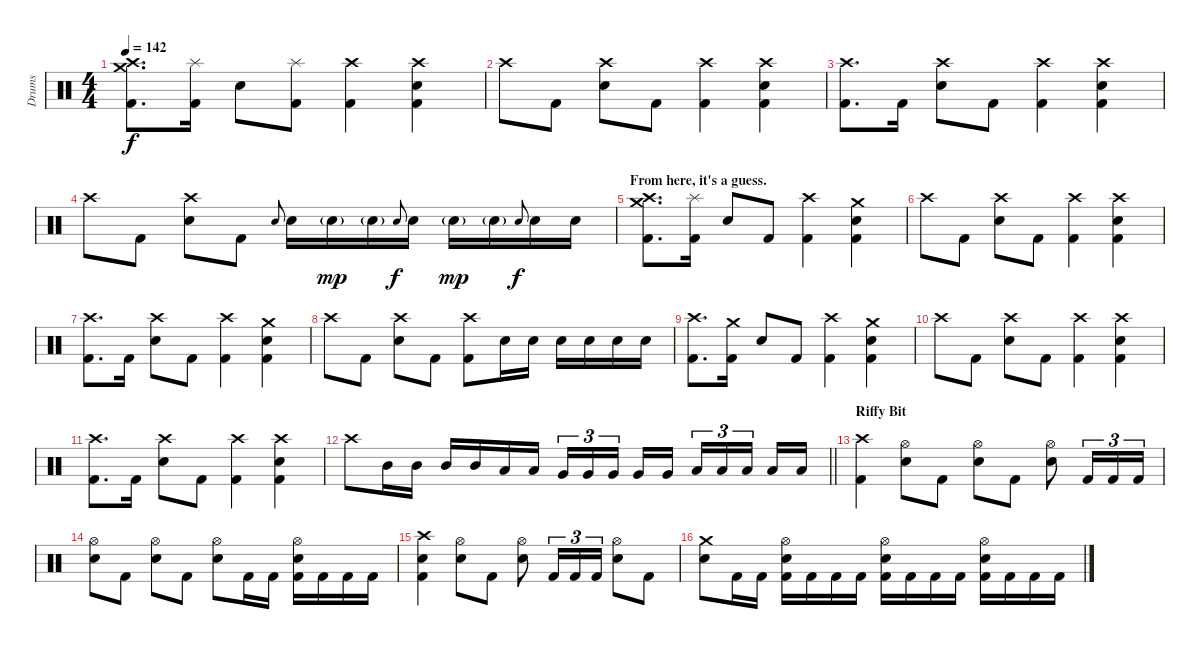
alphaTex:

\track ("Drums" "Drums") {instrument percussion}
\staff {score}
\articulation defaults
\ts (4 4)
\tempo 142
\clef neutral
\ks c
("Crash high (hit)" "Crash medium (hit)" "Kick (hit) 2").8{d dy f} ("Splash (hit)" "Kick (hit) 2").16 "Electric Snare (hit)".8 ("Splash (hit)" "Kick (hit) 2").8 ("Crash high (hit)" "Kick (hit) 2").4 ("Crash high (hit)" "Electric Snare (hit)" "Kick (hit) 2").4 |
"Crash high (hit)".8 "Kick (hit) 2".8 ("Crash high (hit)" "Electric Snare (hit)").8 "Kick (hit) 2".8 ("Crash high (hit)" "Kick (hit) 2").4 ("Crash high (hit)" "Electric Snare (hit)" "Kick (hit) 2").4 |
("Crash high (hit)" "Kick (hit) 2").8{d} "Kick (hit) 2".16 ("Crash high (hit)" "Electric Snare (hit)").8 "Kick (hit) 2".8 ("Crash high (hit)" "Kick (hit) 2").4 ("Crash high (hit)" "Electric Snare (hit)" "Kick (hit) 2").4 |
"Crash high (hit)".8 "Kick (hit) 2".8 ("Crash high (hit)" "Electric Snare (hit)").8 "Kick (hit) 2".8 "Electric Snare (hit)".8{gr onbeat} "Electric Snare (hit)".16 "Electric Snare (hit)"{g}.16{dy mp} "Electric Snare (hit)"{g}.16 "Electric Snare (hit)".8{gr onbeat dy f} "Electric Snare (hit)".16 "Electric Snare (hit)"{g}.16{dy mp} "Electric Snare (hit)"{g}.16 "Electric Snare (hit)".8{gr onbeat dy f} "Electric Snare (hit)".16 "Electric Snare (hit)".16 |
\section ("" "From here, it's a guess.")
("Crash high (hit)" "Crash medium (hit)" "Kick (hit) 2").8{d} ("Splash (hit)" "Kick (hit) 2").16 "Electric Snare (hit)".8 "Kick (hit) 2".8 ("Crash high (hit)" "Kick (hit) 2").4 ("Crash medium (hit)" "Electric Snare (hit)" "Kick (hit) 2").4 |
"Crash high (hit)".8 "Kick (hit) 2".8 ("Crash high (hit)" "Electric Snare (hit)").8 "Kick (hit) 2".8 ("Crash high (hit)" "Kick (hit) 2").4 ("Crash high (hit)" "Electric Snare (hit)" "Kick (hit) 2").4 |
("Crash high (hit)" "Kick (hit) 2").8{d} "Kick (hit) 2".16 ("Crash high (hit)" "Electric Snare (hit)").8 "Kick (hit) 2".8 ("Crash high (hit)" "Kick (hit) 2").4 ("Crash medium (hit)" "Electric Snare (hit)" "Kick (hit) 2").4 |
"Crash high (hit)".8 "Kick (hit) 2".8 ("Crash high (hit)" "Electric Snare (hit)").8 "Kick (hit) 2".8 ("Crash high (hit)" "Kick (hit) 2").8 "Electric Snare (hit)".16 "Electric Snare (hit)".16 "Electric Snare (hit)".16 "Electric Snare (hit)".16 "Electric Snare (hit)".16 "Electric Snare (hit)".16 |
("Crash high (hit)" "Kick (hit) 2").8{d} ("Crash medium (hit)" "Kick (hit) 2").16 "Electric Snare (hit)".8 "Kick (hit) 2".8 ("Crash high (hit)" "Kick (hit) 2").4 ("Crash medium (hit)" "Electric Snare (hit)" "Kick (hit) 2").4 |
"Crash high (hit)".8 "Kick (hit) 2".8 ("Crash high (hit)" "Electric Snare (hit)").8 "Kick (hit) 2".8 ("Crash high (hit)" "Kick (hit) 2").4 ("Crash high (hit)" "Electric Snare (hit)" "Kick (hit) 2").4 |
("Crash high (hit)" "Kick (hit) 2").8{d} "Kick (hit) 2".16 ("Crash high (hit)" "Electric Snare (hit)").8 "Kick (hit) 2".8 ("Crash high (hit)" "Kick (hit) 2").4 ("Crash high (hit)" "Electric Snare (hit)" "Kick (hit) 2").4 |
\barLineRight lightlight "Crash high (hit)".8 "Mid Tom (hit)".16 "Mid Tom (hit)".16 "Mid Tom (hit)".16 "Mid Tom (hit)".16 "Low Tom (hit)".16 "Low Tom (hit)".16 "Very Low Tom (hit)".16{tu (3 2)} "Very Low Tom (hit)".16{tu (3 2)} "Very Low Tom (hit)".16{tu (3 2) beam splitsecondary} "Very Low Tom (hit)".16 "Very Low Tom (hit)".16 "Low Floor Tom (hit)".16{tu (3 2)} "Low Floor Tom (hit)".16{tu (3 2)} "Low Floor Tom (hit)".16{tu (3 2) beam splitsecondary} "Low Floor Tom (hit)".16 "Low Floor Tom (hit)".16
|
\section ("" "Riffy Bit")
("Crash high (hit)" "Kick (hit) 2").4 ("Hi-Hat (open)" "Electric Snare (hit)").8 "Kick (hit) 2".8 ("Hi-Hat (open)" "Electric Snare (hit)").8 "Kick (hit) 2".8 ("Hi-Hat (open)" "Electric Snare (hit)").8 "Kick (hit) 2".16{tu (3 2)} "Kick (hit) 2".16{tu (3 2)} "Kick (hit) 2".16{tu (3 2)} |
("Hi-Hat (open)" "Electric Snare (hit)").8 "Kick (hit) 2".8 ("Hi-Hat (open)" "Electric Snare (hit)").8 "Kick (hit) 2".8 ("Hi-Hat (open)" "Electric Snare (hit)").8 "Kick (hit) 2".16 "Kick (hit) 2".16 ("Hi-Hat (open)" "Electric Snare (hit)" "Kick (hit) 2").16 "Kick (hit) 2".16 "Kick (hit) 2".16 "Kick (hit) 2".16 |
("Crash high (hit)" "Electric Snare (hit)" "Kick (hit) 2").4 ("Hi-Hat (open)" "Electric Snare (hit)").8 "Kick (hit) 2".8 ("Hi-Hat (open)" "Electric Snare (hit)").8 "Kick (hit) 2".16{tu (3 2)} "Kick (hit) 2".16{tu (3 2)} "Kick (hit) 2".16{tu (3 2)} ("Hi-Hat (open)" "Electric Snare (hit)").8 "Kick (hit) 2".8 |
("Crash medium (hit)" "Electric Snare (hit)").8 "Kick (hit) 2".16 "Kick (hit) 2".16 ("Hi-Hat (open)" "Electric Snare (hit)" "Kick (hit) 2").16 "Kick (hit) 2".16 "Kick (hit) 2".16 "Kick (hit) 2".16 ("Hi-Hat (open)" "Electric Snare (hit)" "Kick (hit) 2").16 "Kick (hit) 2".16 "Kick (hit) 2".16 "Kick (hit) 2".16 ("Hi-Hat (open)" "Electric Snare (hit)" "Kick (hit) 2").16 "Kick (hit) 2".16 "Kick (hit) 2".16 "Kick (hit) 2".16
